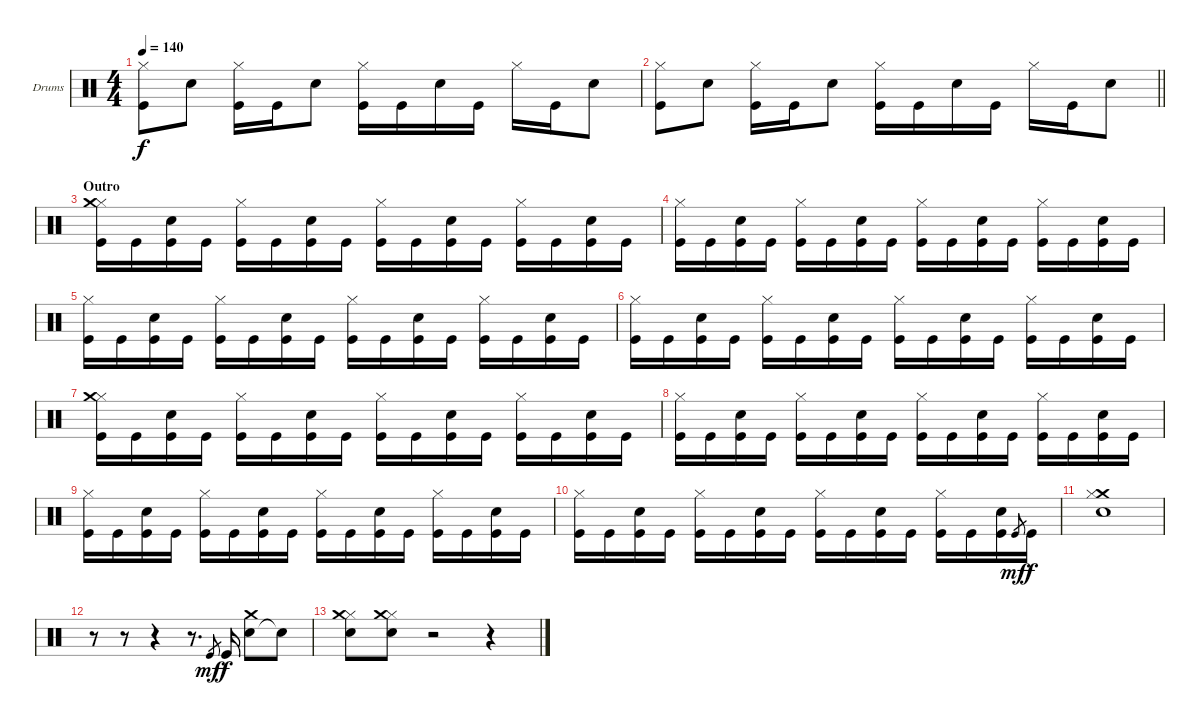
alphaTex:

\bracketExtendMode groupsimilarinstruments
\firstSystemTrackNameOrientation horizontal
\otherSystemsTrackNameOrientation horizontal
\track ("Drumkit" "Drums") {instrument percussion}
\staff {score}
\articulation defaults
\ts (4 4)
\tempo 140
\clef neutral
\ks c
("Hi-Hat (closed)" "Kick (hit)").8{dy f} "Snare (hit) 2".8 ("Hi-Hat (closed)" "Kick (hit)").16 "Kick (hit)".16 "Snare (hit) 2".8 ("Hi-Hat (closed)" "Kick (hit)").16 "Kick (hit)".16 "Snare (hit) 2".16 "Kick (hit)".16 "Hi-Hat (closed)".16 "Kick (hit)".16 "Snare (hit) 2".8 |
\barLineRight lightlight
("Hi-Hat (closed)" "Kick (hit)").8 "Snare (hit) 2".8 ("Hi-Hat (closed)" "Kick (hit)").16 "Kick (hit)".16 "Snare (hit) 2".8 ("Hi-Hat (closed)" "Kick (hit)").16 "Kick (hit)".16 "Snare (hit) 2".16 "Kick (hit)".16 "Hi-Hat (closed)".16 "Kick (hit)".16 "Snare (hit) 2".8 |
\section ("" "Outro")
("Hi-Hat (closed)" "Kick (hit)" "Crash medium (hit)").16 "Kick (hit)".16 ("Snare (hit) 2" "Kick (hit)").16 "Kick (hit)".16 ("Hi-Hat (closed)" "Kick (hit)").16 "Kick (hit)".16 ("Snare (hit) 2" "Kick (hit)").16 "Kick (hit)".16 ("Hi-Hat (closed)" "Kick (hit)").16 "Kick (hit)".16 ("Snare (hit) 2" "Kick (hit)").16 "Kick (hit)".16 ("Hi-Hat (closed)" "Kick (hit)").16 "Kick (hit)".16 ("Snare (hit) 2" "Kick (hit)").16 "Kick (hit)".16 |
("Hi-Hat (closed)" "Kick (hit)").16 "Kick (hit)".16 ("Snare (hit) 2" "Kick (hit)").16 "Kick (hit)".16 ("Hi-Hat (closed)" "Kick (hit)").16 "Kick (hit)".16 ("Snare (hit) 2" "Kick (hit)").16 "Kick (hit)".16 ("Hi-Hat (closed)" "Kick (hit)").16 "Kick (hit)".16 ("Snare (hit) 2" "Kick (hit)").16 "Kick (hit)".16 ("Hi-Hat (closed)" "Kick (hit)").16 "Kick (hit)".16 ("Snare (hit) 2" "Kick (hit)").16 "Kick (hit)".16 |
("Hi-Hat (closed)" "Kick (hit)").16 "Kick (hit)".16 ("Snare (hit) 2" "Kick (hit)").16 "Kick (hit)".16 ("Hi-Hat (closed)" "Kick (hit)").16 "Kick (hit)".16 ("Snare (hit) 2" "Kick (hit)").16 "Kick (hit)".16 ("Hi-Hat (closed)" "Kick (hit)").16 "Kick (hit)".16 ("Snare (hit) 2" "Kick (hit)").16 "Kick (hit)".16 ("Hi-Hat (closed)" "Kick (hit)").16 "Kick (hit)".16 ("Snare (hit) 2" "Kick (hit)").16 "Kick (hit)".16 |
("Hi-Hat (closed)" "Kick (hit)").16 "Kick (hit)".16 ("Snare (hit) 2" "Kick (hit)").16 "Kick (hit)".16 ("Hi-Hat (closed)" "Kick (hit)").16 "Kick (hit)".16 ("Snare (hit) 2" "Kick (hit)").16 "Kick (hit)".16 ("Hi-Hat (closed)" "Kick (hit)").16 "Kick (hit)".16 ("Snare (hit) 2" "Kick (hit)").16 "Kick (hit)".16 ("Hi-Hat (closed)" "Kick (hit)").16 "Kick (hit)".16 ("Snare (hit) 2" "Kick (hit)").16 "Kick (hit)".16 |
("Hi-Hat (closed)" "Kick (hit)" "Crash medium (hit)").16 "Kick (hit)".16 ("Snare (hit) 2" "Kick (hit)").16 "Kick (hit)".16 ("Hi-Hat (closed)" "Kick (hit)").16 "Kick (hit)".16 ("Snare (hit) 2" "Kick (hit)").16 "Kick (hit)".16 ("Hi-Hat (closed)" "Kick (hit)").16 "Kick (hit)".16 ("Snare (hit) 2" "Kick (hit)").16 "Kick (hit)".16 ("Hi-Hat (closed)" "Kick (hit)").16 "Kick (hit)".16 ("Snare (hit) 2" "Kick (hit)").16 "Kick (hit)".16 |
("Hi-Hat (closed)" "Kick (hit)").16 "Kick (hit)".16 ("Snare (hit) 2" "Kick (hit)").16 "Kick (hit)".16 ("Hi-Hat (closed)" "Kick (hit)").16 "Kick (hit)".16 ("Snare (hit) 2" "Kick (hit)").16 "Kick (hit)".16 ("Hi-Hat (closed)" "Kick (hit)").16 "Kick (hit)".16 ("Snare (hit) 2" "Kick (hit)").16 "Kick (hit)".16 ("Hi-Hat (closed)" "Kick (hit)").16 "Kick (hit)".16 ("Snare (hit) 2" "Kick (hit)").16 "Kick (hit)".16 |
("Hi-Hat (closed)" "Kick (hit)").16 "Kick (hit)".16 ("Snare (hit) 2" "Kick (hit)").16 "Kick (hit)".16 ("Hi-Hat (closed)" "Kick (hit)").16 "Kick (hit)".16 ("Snare (hit) 2" "Kick (hit)").16 "Kick (hit)".16 ("Hi-Hat (closed)" "Kick (hit)").16 "Kick (hit)".16 ("Snare (hit) 2" "Kick (hit)").16 "Kick (hit)".16 ("Hi-Hat (closed)" "Kick (hit)").16 "Kick (hit)".16 ("Snare (hit) 2" "Kick (hit)").16 "Kick (hit)".16 |
("Hi-Hat (closed)" "Kick (hit)").16 "Kick (hit)".16 ("Snare (hit) 2" "Kick (hit)").16 "Kick (hit)".16 ("Hi-Hat (closed)" "Kick (hit)").16 "Kick (hit)".16 ("Snare (hit) 2" "Kick (hit)").16 "Kick (hit)".16 ("Hi-Hat (closed)" "Kick (hit)").16 "Kick (hit)".16 ("Snare (hit) 2" "Kick (hit)").16 "Kick (hit)".16 ("Hi-Hat (closed)" "Kick (hit)").16 "Kick (hit)".16 ("Snare (hit) 2" "Kick (hit)").16 "Kick (hit)".8{gr dy mf} "Kick (hit)".16{dy f} |
("Snare (hit) 2" "Crash medium (hit)" "Hi-Hat (closed)").1 |
r.8 r.8 r.4 r.8{d} "Kick (hit)".8{gr dy mf} "Kick (hit)".16{dy f} ("Snare (hit) 2" "Crash medium (hit)").8 "Snare (hit) 2"{t}.8 |
("Hi-Hat (closed)" "Snare (hit) 2" "Crash medium (hit)").8 ("Hi-Hat (closed)" "Snare (hit) 2" "Crash medium (hit)").8 r.2 r.4
